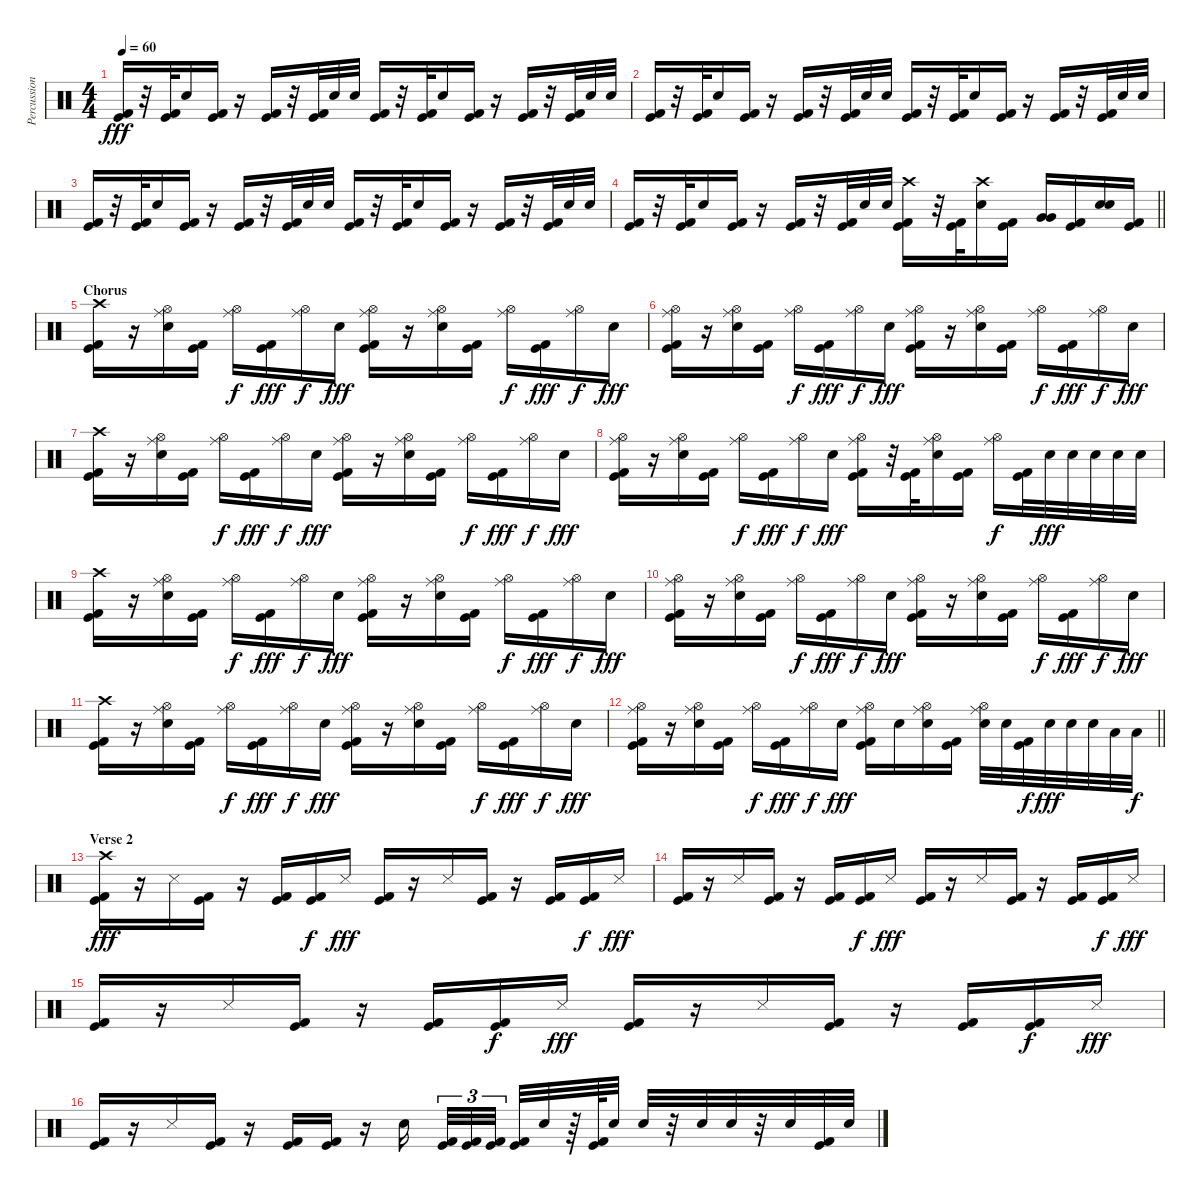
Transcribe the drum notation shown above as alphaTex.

\track ("Percussion" "Percussion") {instrument percussion}
\staff {score}
\articulation defaults
\ts (4 4)
\tempo 60
\clef neutral
\ks c
("Kick (hit)" "Kick (hit) 2").16{dy fff} r.32 ("Kick (hit)" "Kick (hit) 2").32 "Electric Snare (hit)".16 ("Kick (hit)" "Kick (hit) 2").16 r.16 ("Kick (hit)" "Kick (hit) 2").16 r.32 ("Kick (hit)" "Kick (hit) 2").32 "Electric Snare (hit)".32 "Electric Snare (hit)".32 ("Kick (hit)" "Kick (hit) 2").16 r.32 ("Kick (hit)" "Kick (hit) 2").32 "Electric Snare (hit)".16 ("Kick (hit)" "Kick (hit) 2").16 r.16 ("Kick (hit)" "Kick (hit) 2").16 r.32 ("Kick (hit)" "Kick (hit) 2").32 "Electric Snare (hit)".32 "Electric Snare (hit)".32 |
("Kick (hit)" "Kick (hit) 2").16 r.32 ("Kick (hit)" "Kick (hit) 2").32 "Electric Snare (hit)".16 ("Kick (hit)" "Kick (hit) 2").16 r.16 ("Kick (hit)" "Kick (hit) 2").16 r.32 ("Kick (hit)" "Kick (hit) 2").32 "Electric Snare (hit)".32 "Electric Snare (hit)".32 ("Kick (hit)" "Kick (hit) 2").16 r.32 ("Kick (hit)" "Kick (hit) 2").32 "Electric Snare (hit)".16 ("Kick (hit)" "Kick (hit) 2").16 r.16 ("Kick (hit)" "Kick (hit) 2").16 r.32 ("Kick (hit)" "Kick (hit) 2").32 "Electric Snare (hit)".32 "Electric Snare (hit)".32 |
("Kick (hit)" "Kick (hit) 2").16 r.32 ("Kick (hit)" "Kick (hit) 2").32 "Electric Snare (hit)".16 ("Kick (hit)" "Kick (hit) 2").16 r.16 ("Kick (hit)" "Kick (hit) 2").16 r.32 ("Kick (hit)" "Kick (hit) 2").32 "Electric Snare (hit)".32 "Electric Snare (hit)".32 ("Kick (hit)" "Kick (hit) 2").16 r.32 ("Kick (hit)" "Kick (hit) 2").32 "Electric Snare (hit)".16 ("Kick (hit)" "Kick (hit) 2").16 r.16 ("Kick (hit)" "Kick (hit) 2").16 r.32 ("Kick (hit)" "Kick (hit) 2").32 "Electric Snare (hit)".32 "Electric Snare (hit)".32 |
\barLineRight lightlight
("Kick (hit)" "Kick (hit) 2").16 r.32 ("Kick (hit)" "Kick (hit) 2").32 "Electric Snare (hit)".16 ("Kick (hit)" "Kick (hit) 2").16 r.16 ("Kick (hit)" "Kick (hit) 2").16 r.32 ("Kick (hit)" "Kick (hit) 2").32 "Electric Snare (hit)".32 "Electric Snare (hit)".32 ("Crash high (hit)" "Kick (hit)" "Kick (hit) 2").16 r.32 ("Kick (hit)" "Kick (hit) 2").32 ("Crash high (hit)" "Electric Snare (hit)").16 ("Kick (hit)" "Kick (hit) 2").16 ("Very Low Tom (hit)" "Very Low Tom (hit)").16{bd 60} ("Kick (hit)" "Kick (hit) 2").16 ("Electric Snare (hit)" "Electric Snare (hit)").16{bd 60} ("Kick (hit)" "Kick (hit) 2").16 |
\section ("" "Chorus")
("Crash high (hit)" "Kick (hit)" "Kick (hit) 2").16 r.16 ("Hi-Hat (open)" "Ride (middle)" "Electric Snare (hit)").16 ("Kick (hit)" "Kick (hit) 2").16 ("Hi-Hat (open)" "Ride (middle)").16{dy f} ("Kick (hit)" "Kick (hit) 2").16{dy fff} ("Hi-Hat (open)" "Ride (middle)").16{dy f} "Electric Snare (hit)".16{dy fff} ("Hi-Hat (open)" "Ride (middle)" "Kick (hit)" "Kick (hit) 2").16 r.16 ("Hi-Hat (open)" "Ride (middle)" "Electric Snare (hit)").16 ("Kick (hit)" "Kick (hit) 2").16 ("Hi-Hat (open)" "Ride (middle)").16{dy f} ("Kick (hit)" "Kick (hit) 2").16{dy fff} ("Hi-Hat (open)" "Ride (middle)").16{dy f} "Electric Snare (hit)".16{dy fff} |
("Hi-Hat (open)" "Ride (middle)" "Kick (hit)" "Kick (hit) 2").16 r.16 ("Hi-Hat (open)" "Ride (middle)" "Electric Snare (hit)").16 ("Kick (hit)" "Kick (hit) 2").16 ("Hi-Hat (open)" "Ride (middle)").16{dy f} ("Kick (hit)" "Kick (hit) 2").16{dy fff} ("Hi-Hat (open)" "Ride (middle)").16{dy f} "Electric Snare (hit)".16{dy fff} ("Hi-Hat (open)" "Ride (middle)" "Kick (hit)" "Kick (hit) 2").16 r.16 ("Hi-Hat (open)" "Ride (middle)" "Electric Snare (hit)").16 ("Kick (hit)" "Kick (hit) 2").16 ("Hi-Hat (open)" "Ride (middle)").16{dy f} ("Kick (hit)" "Kick (hit) 2").16{dy fff} ("Hi-Hat (open)" "Ride (middle)").16{dy f} "Electric Snare (hit)".16{dy fff} |
("Crash high (hit)" "Kick (hit)" "Kick (hit) 2").16 r.16 ("Hi-Hat (open)" "Ride (middle)" "Electric Snare (hit)").16 ("Kick (hit)" "Kick (hit) 2").16 ("Hi-Hat (open)" "Ride (middle)").16{dy f} ("Kick (hit)" "Kick (hit) 2").16{dy fff} ("Hi-Hat (open)" "Ride (middle)").16{dy f} "Electric Snare (hit)".16{dy fff} ("Hi-Hat (open)" "Ride (middle)" "Kick (hit)" "Kick (hit) 2").16 r.16 ("Hi-Hat (open)" "Ride (middle)" "Electric Snare (hit)").16 ("Kick (hit)" "Kick (hit) 2").16 ("Hi-Hat (open)" "Ride (middle)").16{dy f} ("Kick (hit)" "Kick (hit) 2").16{dy fff} ("Hi-Hat (open)" "Ride (middle)").16{dy f} "Electric Snare (hit)".16{dy fff} |
("Hi-Hat (open)" "Ride (middle)" "Kick (hit)" "Kick (hit) 2").16 r.16 ("Hi-Hat (open)" "Ride (middle)" "Electric Snare (hit)").16 ("Kick (hit)" "Kick (hit) 2").16 ("Hi-Hat (open)" "Ride (middle)").16{dy f} ("Kick (hit)" "Kick (hit) 2").16{dy fff} ("Hi-Hat (open)" "Ride (middle)").16{dy f} "Electric Snare (hit)".16{dy fff} ("Hi-Hat (open)" "Ride (middle)" "Kick (hit)" "Kick (hit) 2").16 r.32 ("Kick (hit)" "Kick (hit) 2").32 ("Hi-Hat (open)" "Ride (middle)" "Electric Snare (hit)").16 ("Kick (hit)" "Kick (hit) 2").16 ("Hi-Hat (open)" "Ride (middle)").16{dy f} ("Kick (hit)" "Kick (hit) 2").32 "Electric Snare (hit)".32{dy fff} "Electric Snare (hit)".32 "Electric Snare (hit)".32 "Electric Snare (hit)".32 "Electric Snare (hit)".32 |
("Crash high (hit)" "Kick (hit)" "Kick (hit) 2").16 r.16 ("Hi-Hat (open)" "Ride (middle)" "Electric Snare (hit)").16 ("Kick (hit)" "Kick (hit) 2").16 ("Hi-Hat (open)" "Ride (middle)").16{dy f} ("Kick (hit)" "Kick (hit) 2").16{dy fff} ("Hi-Hat (open)" "Ride (middle)").16{dy f} "Electric Snare (hit)".16{dy fff} ("Hi-Hat (open)" "Ride (middle)" "Kick (hit)" "Kick (hit) 2").16 r.16 ("Hi-Hat (open)" "Ride (middle)" "Electric Snare (hit)").16 ("Kick (hit)" "Kick (hit) 2").16 ("Hi-Hat (open)" "Ride (middle)").16{dy f} ("Kick (hit)" "Kick (hit) 2").16{dy fff} ("Hi-Hat (open)" "Ride (middle)").16{dy f} "Electric Snare (hit)".16{dy fff} |
("Hi-Hat (open)" "Ride (middle)" "Kick (hit)" "Kick (hit) 2").16 r.16 ("Hi-Hat (open)" "Ride (middle)" "Electric Snare (hit)").16 ("Kick (hit)" "Kick (hit) 2").16 ("Hi-Hat (open)" "Ride (middle)").16{dy f} ("Kick (hit)" "Kick (hit) 2").16{dy fff} ("Hi-Hat (open)" "Ride (middle)").16{dy f} "Electric Snare (hit)".16{dy fff} ("Hi-Hat (open)" "Ride (middle)" "Kick (hit)" "Kick (hit) 2").16 r.16 ("Hi-Hat (open)" "Ride (middle)" "Electric Snare (hit)").16 ("Kick (hit)" "Kick (hit) 2").16 ("Hi-Hat (open)" "Ride (middle)").16{dy f} ("Kick (hit)" "Kick (hit) 2").16{dy fff} ("Hi-Hat (open)" "Ride (middle)").16{dy f} "Electric Snare (hit)".16{dy fff} |
("Crash high (hit)" "Kick (hit)" "Kick (hit) 2").16 r.16 ("Hi-Hat (open)" "Ride (middle)" "Electric Snare (hit)").16 ("Kick (hit)" "Kick (hit) 2").16 ("Hi-Hat (open)" "Ride (middle)").16{dy f} ("Kick (hit)" "Kick (hit) 2").16{dy fff} ("Hi-Hat (open)" "Ride (middle)").16{dy f} "Electric Snare (hit)".16{dy fff} ("Hi-Hat (open)" "Ride (middle)" "Kick (hit)" "Kick (hit) 2").16 r.16 ("Hi-Hat (open)" "Ride (middle)" "Electric Snare (hit)").16 ("Kick (hit)" "Kick (hit) 2").16 ("Hi-Hat (open)" "Ride (middle)").16{dy f} ("Kick (hit)" "Kick (hit) 2").16{dy fff} ("Hi-Hat (open)" "Ride (middle)").16{dy f} "Electric Snare (hit)".16{dy fff} |
\barLineRight lightlight
("Hi-Hat (open)" "Ride (middle)" "Kick (hit)" "Kick (hit) 2").16 r.16 ("Hi-Hat (open)" "Ride (middle)" "Electric Snare (hit)").16 ("Kick (hit)" "Kick (hit) 2").16 ("Hi-Hat (open)" "Ride (middle)").16{dy f} ("Kick (hit)" "Kick (hit) 2").16{dy fff} ("Hi-Hat (open)" "Ride (middle)").16{dy f} "Electric Snare (hit)".16{dy fff} ("Hi-Hat (open)" "Ride (middle)" "Kick (hit)" "Kick (hit) 2").16 "Electric Snare (hit)".16 ("Hi-Hat (open)" "Ride (middle)" "Electric Snare (hit)").16 ("Kick (hit)" "Kick (hit) 2").16 ("Hi-Hat (open)" "Ride (middle)" "Electric Snare (hit)").32 "Electric Snare (hit)".32 ("Kick (hit)" "Kick (hit) 2").32{dy f} "Electric Snare (hit)".32{dy fff} "Electric Snare (hit)".32 "Electric Snare (hit)".32 "Low Tom (hit)".32 "Low Floor Tom (hit)".32{dy f} |
\section ("" "Verse 2")
("Crash high (hit)" "Kick (hit)" "Kick (hit) 2").16{dy fff} r.16 "Metronome (hit)".16 ("Kick (hit)" "Kick (hit) 2").16 r.16 ("Kick (hit)" "Kick (hit) 2").16 ("Kick (hit)" "Kick (hit) 2").16{dy f} "Metronome (hit)".16{dy fff} ("Kick (hit)" "Kick (hit) 2").16 r.16 "Metronome (hit)".16 ("Kick (hit)" "Kick (hit) 2").16 r.16 ("Kick (hit)" "Kick (hit) 2").16 ("Kick (hit)" "Kick (hit) 2").16{dy f} "Metronome (hit)".16{dy fff} |
("Kick (hit)" "Kick (hit) 2").16 r.16 "Metronome (hit)".16 ("Kick (hit)" "Kick (hit) 2").16 r.16 ("Kick (hit)" "Kick (hit) 2").16 ("Kick (hit)" "Kick (hit) 2").16{dy f} "Metronome (hit)".16{dy fff} ("Kick (hit)" "Kick (hit) 2").16 r.16 "Metronome (hit)".16 ("Kick (hit)" "Kick (hit) 2").16 r.16 ("Kick (hit)" "Kick (hit) 2").16 ("Kick (hit)" "Kick (hit) 2").16{dy f} "Metronome (hit)".16{dy fff} |
("Kick (hit)" "Kick (hit) 2").16 r.16 "Metronome (hit)".16 ("Kick (hit)" "Kick (hit) 2").16 r.16 ("Kick (hit)" "Kick (hit) 2").16 ("Kick (hit)" "Kick (hit) 2").16{dy f} "Metronome (hit)".16{dy fff} ("Kick (hit)" "Kick (hit) 2").16 r.16 "Metronome (hit)".16 ("Kick (hit)" "Kick (hit) 2").16 r.16 ("Kick (hit)" "Kick (hit) 2").16 ("Kick (hit)" "Kick (hit) 2").16{dy f} "Metronome (hit)".16{dy fff} |
("Kick (hit)" "Kick (hit) 2").16 r.16 "Metronome (hit)".16 ("Kick (hit)" "Kick (hit) 2").16 r.16 ("Kick (hit)" "Kick (hit) 2").16 ("Kick (hit)" "Kick (hit) 2").16 r.16 "Electric Snare (hit)".16{beam splitsecondary} ("Kick (hit)" "Kick (hit) 2").32{tu (3 2)} ("Kick (hit)" "Kick (hit) 2").32{tu (3 2)} ("Kick (hit)" "Kick (hit) 2").32{tu (3 2) beam splitsecondary} ("Kick (hit)" "Kick (hit) 2").32 "Electric Snare (hit)".32 r.64 ("Kick (hit)" "Kick (hit) 2").64 "Electric Snare (hit)".32 "Electric Snare (hit)".32 r.32 "Electric Snare (hit)".32 "Electric Snare (hit)".32 r.32 "Electric Snare (hit)".32 ("Kick (hit)" "Kick (hit) 2").32 "Electric Snare (hit)".32
